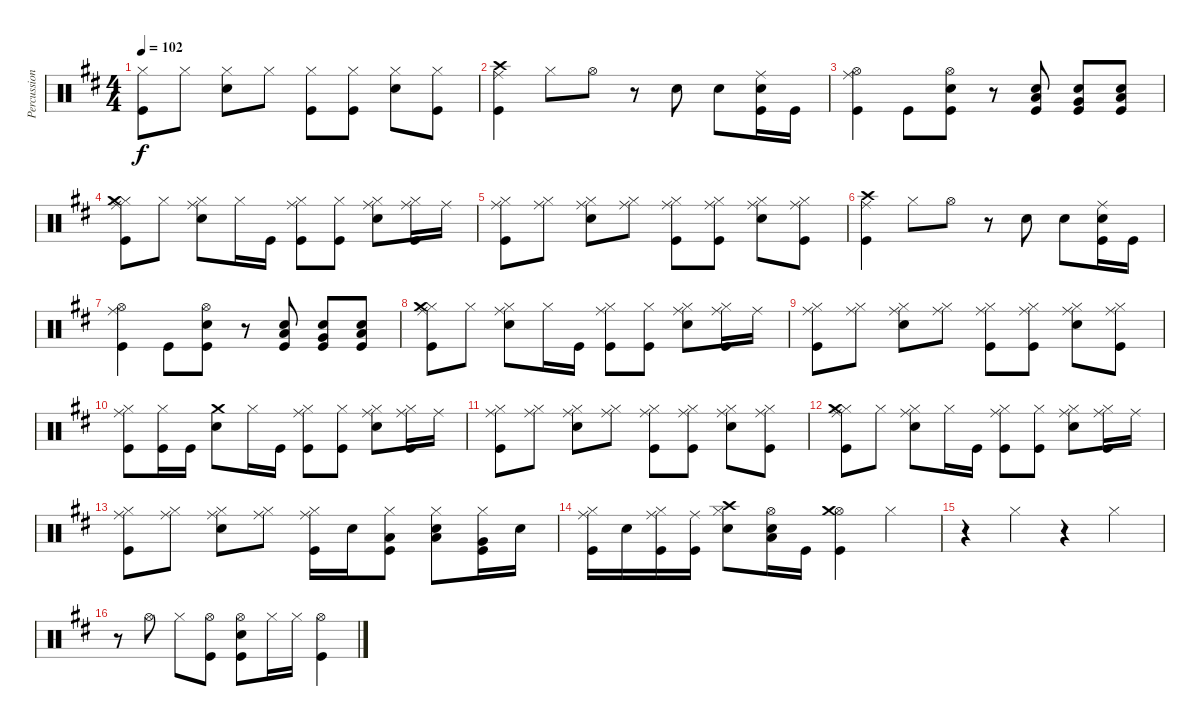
\track ("Percussion" "Percussion") {instrument percussion}
\staff {score}
\articulation defaults
\ts (4 4)
\tempo 102
\clef neutral
\ks d
("Hi-Hat (closed)" "Kick (hit)").8{dy f} "Hi-Hat (closed)".8 ("Hi-Hat (closed)" "Snare (hit) 2").8 "Hi-Hat (closed)".8 ("Hi-Hat (closed)" "Kick (hit)").8 ("Hi-Hat (closed)" "Kick (hit)").8 ("Hi-Hat (closed)" "Snare (hit) 2").8 ("Hi-Hat (closed)" "Kick (hit)").8 |
("Crash high (hit)" "Ride (middle)" "Kick (hit)").4 "Hi-Hat (closed)".8 "Hi-Hat (open)".8 r.8 "Snare (hit) 2".8 "Snare (hit) 2".8 ("Ride (middle)" "Snare (hit) 2" "Kick (hit)").16 "Kick (hit)".16 |
("Hi-Hat (open)" "Ride (middle)" "Kick (hit)").4 "Kick (hit)".8 ("Hi-Hat (open)" "Snare (hit) 2" "Kick (hit)").8 r.8 ("Low Tom (hit)" "Snare (hit) 2" "Kick (hit)").8 ("Very Low Tom (hit)" "Snare (hit) 2" "Kick (hit)").8 ("Low Floor Tom (hit)" "Snare (hit) 2" "Kick (hit)").8 |
("Hi-Hat (closed)" "Ride (middle)" "Crash medium (hit)" "Kick (hit)").8 "Hi-Hat (closed)".8 ("Hi-Hat (closed)" "Ride (middle)" "Snare (hit) 2").8 "Hi-Hat (closed)".16 "Kick (hit)".16 ("Hi-Hat (closed)" "Ride (middle)" "Kick (hit)").8 ("Hi-Hat (closed)" "Kick (hit)").8 ("Hi-Hat (closed)" "Ride (middle)" "Snare (hit) 2").8 ("Hi-Hat (closed)" "Ride (middle)" "Kick (hit)").16 "Ride (middle)".16 |
("Hi-Hat (closed)" "Ride (middle)" "Kick (hit)").8 ("Hi-Hat (closed)" "Ride (middle)").8 ("Hi-Hat (closed)" "Ride (middle)" "Snare (hit) 2").8 ("Hi-Hat (closed)" "Ride (middle)").8 ("Hi-Hat (closed)" "Ride (middle)" "Kick (hit)").8 ("Hi-Hat (closed)" "Ride (middle)" "Kick (hit)").8 ("Hi-Hat (closed)" "Ride (middle)" "Snare (hit) 2").8 ("Hi-Hat (closed)" "Ride (middle)" "Kick (hit)").8 |
("Crash high (hit)" "Ride (middle)" "Kick (hit)").4 "Hi-Hat (closed)".8 "Hi-Hat (open)".8 r.8 "Snare (hit) 2".8 "Snare (hit) 2".8 ("Ride (middle)" "Snare (hit) 2" "Kick (hit)").16 "Kick (hit)".16 |
("Hi-Hat (open)" "Ride (middle)" "Kick (hit)").4 "Kick (hit)".8 ("Hi-Hat (open)" "Snare (hit) 2" "Kick (hit)").8 r.8 ("Low Tom (hit)" "Snare (hit) 2" "Kick (hit)").8 ("Very Low Tom (hit)" "Snare (hit) 2" "Kick (hit)").8 ("Low Floor Tom (hit)" "Snare (hit) 2" "Kick (hit)").8 |
("Hi-Hat (closed)" "Ride (middle)" "Crash medium (hit)" "Kick (hit)").8 "Hi-Hat (closed)".8 ("Hi-Hat (closed)" "Ride (middle)" "Snare (hit) 2").8 "Hi-Hat (closed)".16 "Kick (hit)".16 ("Hi-Hat (closed)" "Ride (middle)" "Kick (hit)").8 ("Hi-Hat (closed)" "Kick (hit)").8 ("Hi-Hat (closed)" "Ride (middle)" "Snare (hit) 2").8 ("Hi-Hat (closed)" "Ride (middle)" "Kick (hit)").16 "Ride (middle)".16 |
("Hi-Hat (closed)" "Ride (middle)" "Kick (hit)").8 ("Hi-Hat (closed)" "Ride (middle)").8 ("Hi-Hat (closed)" "Ride (middle)" "Snare (hit) 2").8 ("Hi-Hat (closed)" "Ride (middle)").8 ("Hi-Hat (closed)" "Ride (middle)" "Kick (hit)").8 ("Hi-Hat (closed)" "Ride (middle)" "Kick (hit)").8 ("Hi-Hat (closed)" "Ride (middle)" "Snare (hit) 2").8 ("Hi-Hat (closed)" "Ride (middle)" "Kick (hit)").8 |
("Hi-Hat (closed)" "Ride (middle)" "Kick (hit)").8 ("Hi-Hat (closed)" "Kick (hit)").16 "Kick (hit)".16 ("Crash medium (hit)" "Snare (hit) 2").8 "Hi-Hat (closed)".16 "Kick (hit)".16 ("Hi-Hat (closed)" "Ride (middle)" "Kick (hit)").8 ("Hi-Hat (closed)" "Kick (hit)").8 ("Hi-Hat (closed)" "Ride (middle)" "Snare (hit) 2").8 ("Hi-Hat (closed)" "Ride (middle)" "Kick (hit)").16 "Ride (middle)".16 |
("Hi-Hat (closed)" "Ride (middle)" "Kick (hit)").8 ("Hi-Hat (closed)" "Ride (middle)").8 ("Hi-Hat (closed)" "Ride (middle)" "Snare (hit) 2").8 ("Hi-Hat (closed)" "Ride (middle)").8 ("Hi-Hat (closed)" "Ride (middle)" "Kick (hit)").8 ("Hi-Hat (closed)" "Ride (middle)" "Kick (hit)").8 ("Hi-Hat (closed)" "Ride (middle)" "Snare (hit) 2").8 ("Hi-Hat (closed)" "Ride (middle)" "Kick (hit)").8 |
("Hi-Hat (closed)" "Ride (middle)" "Crash medium (hit)" "Kick (hit)").8 "Hi-Hat (closed)".8 ("Hi-Hat (closed)" "Ride (middle)" "Snare (hit) 2").8 "Hi-Hat (closed)".16 "Kick (hit)".16 ("Hi-Hat (closed)" "Ride (middle)" "Kick (hit)").8 ("Hi-Hat (closed)" "Kick (hit)").8 ("Hi-Hat (closed)" "Ride (middle)" "Snare (hit) 2").8 ("Hi-Hat (closed)" "Ride (middle)" "Kick (hit)").16 "Ride (middle)".16 |
("Hi-Hat (closed)" "Ride (middle)" "Kick (hit)").8 ("Hi-Hat (closed)" "Ride (middle)").8 ("Hi-Hat (closed)" "Ride (middle)" "Snare (hit) 2").8 ("Hi-Hat (closed)" "Ride (middle)").8 ("Hi-Hat (closed)" "Ride (middle)" "Kick (hit)").16 "Snare (hit) 2".16 ("Hi-Hat (closed)" "Low Tom (hit)" "Kick (hit)").8 ("Hi-Hat (closed)" "Low Tom (hit)" "Snare (hit) 2").8 ("Hi-Hat (closed)" "Very Low Tom (hit)" "Kick (hit)").16 "Snare (hit) 2".16 |
("Hi-Hat (closed)" "Ride (middle)" "Kick (hit)").16 "Snare (hit) 2".16 ("Hi-Hat (closed)" "Ride (middle)" "Kick (hit)").16 ("Ride (middle)" "Kick (hit)").16 ("Hi-Hat (closed)" "Crash high (hit)" "Snare (hit) 2").8 ("Hi-Hat (open)" "Low Floor Tom (hit)" "Snare (hit) 2").16 "Kick (hit)".16 ("Hi-Hat (open)" "Crash medium (hit)" "Kick (hit)").4 "Hi-Hat (closed)".4 |
r.4 "Hi-Hat (closed)".4 r.4 "Hi-Hat (closed)".4 |
r.8 "Hi-Hat (open)".8 "Hi-Hat (closed)".8 ("Hi-Hat (open)" "Kick (hit)").8 ("Hi-Hat (open)" "Snare (hit) 2" "Kick (hit)").8 "Hi-Hat (closed)".16 "Hi-Hat (closed)".16 ("Hi-Hat (open)" "Kick (hit)").4
